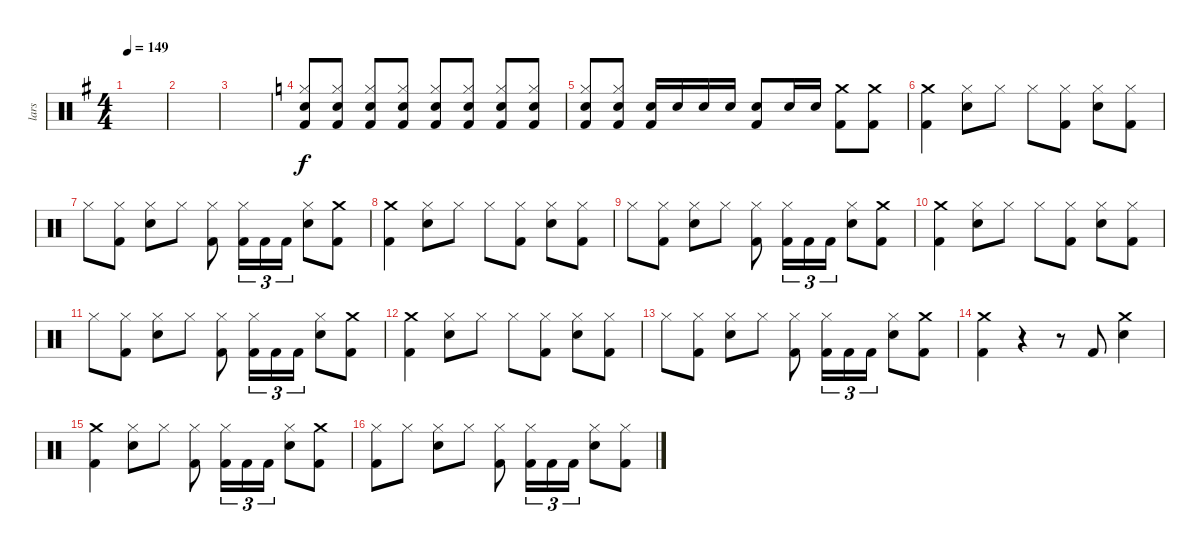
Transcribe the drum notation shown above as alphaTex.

\track ("lars" "lars") {instrument percussion}
\staff {score}
\articulation defaults
\ts (4 4)
\tempo 149
\clef neutral
\ks g
|
|
|
\ks c
("Snare (hit) 2" "Hi-Hat (closed)" "Kick (hit) 2").8 ("Hi-Hat (closed)" "Snare (hit) 2" "Kick (hit) 2").8 ("Snare (hit) 2" "Hi-Hat (closed)" "Kick (hit) 2").8 ("Hi-Hat (closed)" "Snare (hit) 2" "Kick (hit) 2").8 ("Snare (hit) 2" "Hi-Hat (closed)" "Kick (hit) 2").8 ("Hi-Hat (closed)" "Snare (hit) 2" "Kick (hit) 2").8 ("Snare (hit) 2" "Hi-Hat (closed)" "Kick (hit) 2").8 ("Hi-Hat (closed)" "Snare (hit) 2" "Kick (hit) 2").8 |
("Snare (hit) 2" "Hi-Hat (closed)" "Kick (hit) 2").8 ("Hi-Hat (closed)" "Snare (hit) 2" "Kick (hit) 2").8 ("Kick (hit) 2" "Snare (hit) 2").16 "Snare (hit) 2".16 "Snare (hit) 2".16 "Snare (hit) 2".16 ("Kick (hit) 2" "Snare (hit) 2").8 "Snare (hit) 2".16 "Snare (hit) 2".16 ("Crash medium (hit)" "Kick (hit) 2").8 ("Crash medium (hit)" "Kick (hit) 2").8 |
("Kick (hit) 2" "Crash medium (hit)").4 ("Snare (hit) 2" "Hi-Hat (closed)").8 "Hi-Hat (closed)".8 "Hi-Hat (closed)".8 ("Kick (hit) 2" "Hi-Hat (closed)").8 ("Snare (hit) 2" "Hi-Hat (closed)").8 ("Kick (hit) 2" "Hi-Hat (closed)").8 |
"Hi-Hat (closed)".8 ("Kick (hit) 2" "Hi-Hat (closed)").8 ("Snare (hit) 2" "Hi-Hat (closed)").8 "Hi-Hat (closed)".8 ("Kick (hit) 2" "Hi-Hat (closed)").8 ("Kick (hit) 2" "Hi-Hat (closed)").16{tu (3 2)} "Kick (hit) 2".16{tu (3 2)} "Kick (hit) 2".16{tu (3 2)} ("Snare (hit) 2" "Hi-Hat (closed)").8 ("Kick (hit) 2" "Crash medium (hit)").8 |
("Kick (hit) 2" "Crash medium (hit)").4 ("Snare (hit) 2" "Hi-Hat (closed)").8 "Hi-Hat (closed)".8 "Hi-Hat (closed)".8 ("Kick (hit) 2" "Hi-Hat (closed)").8 ("Snare (hit) 2" "Hi-Hat (closed)").8 ("Kick (hit) 2" "Hi-Hat (closed)").8 |
"Hi-Hat (closed)".8 ("Kick (hit) 2" "Hi-Hat (closed)").8 ("Snare (hit) 2" "Hi-Hat (closed)").8 "Hi-Hat (closed)".8 ("Kick (hit) 2" "Hi-Hat (closed)").8 ("Kick (hit) 2" "Hi-Hat (closed)").16{tu (3 2)} "Kick (hit) 2".16{tu (3 2)} "Kick (hit) 2".16{tu (3 2)} ("Snare (hit) 2" "Hi-Hat (closed)").8 ("Kick (hit) 2" "Crash medium (hit)").8 |
("Kick (hit) 2" "Crash medium (hit)").4 ("Snare (hit) 2" "Hi-Hat (closed)").8 "Hi-Hat (closed)".8 "Hi-Hat (closed)".8 ("Kick (hit) 2" "Hi-Hat (closed)").8 ("Snare (hit) 2" "Hi-Hat (closed)").8 ("Kick (hit) 2" "Hi-Hat (closed)").8 |
"Hi-Hat (closed)".8 ("Kick (hit) 2" "Hi-Hat (closed)").8 ("Snare (hit) 2" "Hi-Hat (closed)").8 "Hi-Hat (closed)".8 ("Kick (hit) 2" "Hi-Hat (closed)").8 ("Kick (hit) 2" "Hi-Hat (closed)").16{tu (3 2)} "Kick (hit) 2".16{tu (3 2)} "Kick (hit) 2".16{tu (3 2)} ("Snare (hit) 2" "Hi-Hat (closed)").8 ("Kick (hit) 2" "Crash medium (hit)").8 |
("Kick (hit) 2" "Crash medium (hit)").4 ("Snare (hit) 2" "Hi-Hat (closed)").8 "Hi-Hat (closed)".8 "Hi-Hat (closed)".8 ("Kick (hit) 2" "Hi-Hat (closed)").8 ("Snare (hit) 2" "Hi-Hat (closed)").8 ("Kick (hit) 2" "Hi-Hat (closed)").8 |
"Hi-Hat (closed)".8 ("Kick (hit) 2" "Hi-Hat (closed)").8 ("Snare (hit) 2" "Hi-Hat (closed)").8 "Hi-Hat (closed)".8 ("Kick (hit) 2" "Hi-Hat (closed)").8 ("Kick (hit) 2" "Hi-Hat (closed)").16{tu (3 2)} "Kick (hit) 2".16{tu (3 2)} "Kick (hit) 2".16{tu (3 2)} ("Snare (hit) 2" "Hi-Hat (closed)").8 ("Kick (hit) 2" "Crash medium (hit)").8 |
("Kick (hit) 2" "Crash medium (hit)").4 r.4 r.8 "Kick (hit) 2".8 ("Crash medium (hit)" "Snare (hit) 2").4 |
("Crash medium (hit)" "Kick (hit) 2").4 ("Snare (hit) 2" "Hi-Hat (closed)").8 "Hi-Hat (closed)".8 ("Kick (hit) 2" "Hi-Hat (closed)").8 ("Kick (hit) 2" "Hi-Hat (closed)").16{tu (3 2)} "Kick (hit) 2".16{tu (3 2)} "Kick (hit) 2".16{tu (3 2)} ("Snare (hit) 2" "Hi-Hat (closed)").8 ("Kick (hit) 2" "Crash medium (hit)").8 |
("Kick (hit) 2" "Hi-Hat (closed)").8 "Hi-Hat (closed)".8 ("Snare (hit) 2" "Hi-Hat (closed)").8 "Hi-Hat (closed)".8 ("Kick (hit) 2" "Hi-Hat (closed)").8 ("Kick (hit) 2" "Hi-Hat (closed)").16{tu (3 2)} "Kick (hit) 2".16{tu (3 2)} "Kick (hit) 2".16{tu (3 2)} ("Snare (hit) 2" "Hi-Hat (closed)").8 ("Hi-Hat (closed)" "Kick (hit) 2").8
